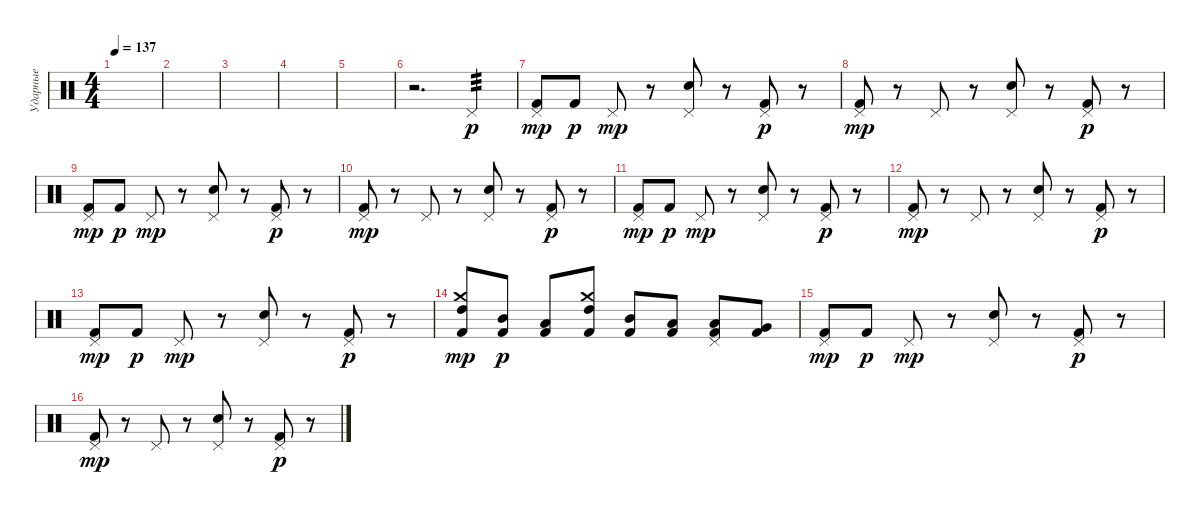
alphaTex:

\track ("Ударные" "Ударные") {instrument percussion}
\staff {score}
\articulation defaults
\ts (4 4)
\tempo 137
\clef neutral
\ks c
|
|
|
|
|
r.2{d} "Pedal Hi-Hat (hit)".4{tp 3 dy p} |
("Pedal Hi-Hat (hit)" "Kick (hit) 2").8{dy mp} "Kick (hit) 2".8{dy p} "Pedal Hi-Hat (hit)".8{dy mp} r.8 ("Pedal Hi-Hat (hit)" "Snare (hit) 2").8 r.8 ("Pedal Hi-Hat (hit)" "Kick (hit) 2").8{dy p} r.8 |
("Pedal Hi-Hat (hit)" "Kick (hit) 2").8{dy mp} r.8 "Pedal Hi-Hat (hit)".8 r.8 ("Pedal Hi-Hat (hit)" "Snare (hit) 2").8 r.8 ("Pedal Hi-Hat (hit)" "Kick (hit) 2").8{dy p} r.8 |
("Pedal Hi-Hat (hit)" "Kick (hit) 2").8{dy mp} "Kick (hit) 2".8{dy p} "Pedal Hi-Hat (hit)".8{dy mp} r.8 ("Pedal Hi-Hat (hit)" "Snare (hit) 2").8 r.8 ("Pedal Hi-Hat (hit)" "Kick (hit) 2").8{dy p} r.8 |
("Pedal Hi-Hat (hit)" "Kick (hit) 2").8{dy mp} r.8 "Pedal Hi-Hat (hit)".8 r.8 ("Pedal Hi-Hat (hit)" "Snare (hit) 2").8 r.8 ("Pedal Hi-Hat (hit)" "Kick (hit) 2").8{dy p} r.8 |
("Pedal Hi-Hat (hit)" "Kick (hit) 2").8{dy mp} "Kick (hit) 2".8{dy p} "Pedal Hi-Hat (hit)".8{dy mp} r.8 ("Pedal Hi-Hat (hit)" "Snare (hit) 2").8 r.8 ("Pedal Hi-Hat (hit)" "Kick (hit) 2").8{dy p} r.8 |
("Pedal Hi-Hat (hit)" "Kick (hit) 2").8{dy mp} r.8 "Pedal Hi-Hat (hit)".8 r.8 ("Pedal Hi-Hat (hit)" "Snare (hit) 2").8 r.8 ("Pedal Hi-Hat (hit)" "Kick (hit) 2").8{dy p} r.8 |
("Pedal Hi-Hat (hit)" "Kick (hit) 2").8{dy mp} "Kick (hit) 2".8{dy p} "Pedal Hi-Hat (hit)".8{dy mp} r.8 ("Pedal Hi-Hat (hit)" "Snare (hit) 2").8 r.8 ("Pedal Hi-Hat (hit)" "Kick (hit) 2").8{dy p} r.8 |
("Crash medium (hit)" "High Tom (hit)" "Kick (hit) 2").8{dy mp} ("Mid Tom (hit)" "Kick (hit) 2").8{dy p} ("Low Tom (hit)" "Kick (hit) 2").8 ("Crash medium (hit)" "High Tom (hit)" "Kick (hit) 2").8 ("Mid Tom (hit)" "Kick (hit) 2").8 ("Low Tom (hit)" "Kick (hit) 2").8 ("Pedal Hi-Hat (hit)" "Low Tom (hit)" "Kick (hit) 2").8 ("Very Low Tom (hit)" "Kick (hit) 2").8 |
("Pedal Hi-Hat (hit)" "Kick (hit) 2").8{dy mp} "Kick (hit) 2".8{dy p} "Pedal Hi-Hat (hit)".8{dy mp} r.8 ("Pedal Hi-Hat (hit)" "Snare (hit) 2").8 r.8 ("Pedal Hi-Hat (hit)" "Kick (hit) 2").8{dy p} r.8 |
("Pedal Hi-Hat (hit)" "Kick (hit) 2").8{dy mp} r.8 "Pedal Hi-Hat (hit)".8 r.8 ("Pedal Hi-Hat (hit)" "Snare (hit) 2").8 r.8 ("Pedal Hi-Hat (hit)" "Kick (hit) 2").8{dy p} r.8
